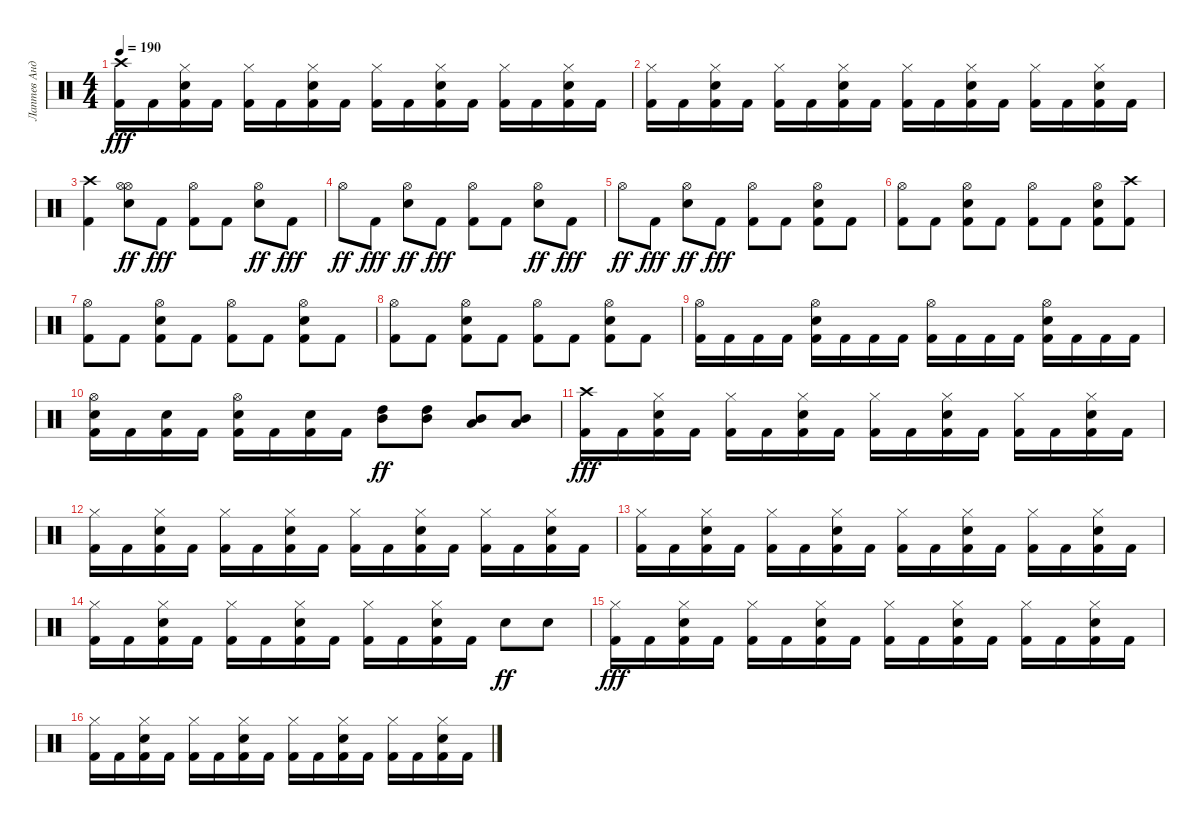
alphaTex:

\track ("Лаптев Андрей" "Лаптев Анд") {instrument percussion}
\staff {score}
\articulation defaults
\ts (4 4)
\tempo 190
\clef neutral
\ks c
("Crash high (hit)" "Kick (hit) 2").16{dy fff} "Kick (hit) 2".16 ("Electric Snare (hit)" "Hi-Hat (closed)" "Kick (hit) 2").16 "Kick (hit) 2".16 ("Hi-Hat (closed)" "Kick (hit) 2").16 "Kick (hit) 2".16 ("Electric Snare (hit)" "Hi-Hat (closed)" "Kick (hit) 2").16 "Kick (hit) 2".16 ("Hi-Hat (closed)" "Kick (hit) 2").16 "Kick (hit) 2".16 ("Hi-Hat (closed)" "Electric Snare (hit)" "Kick (hit) 2").16 "Kick (hit) 2".16 ("Hi-Hat (closed)" "Kick (hit) 2").16 "Kick (hit) 2".16 ("Hi-Hat (closed)" "Electric Snare (hit)" "Kick (hit) 2").16 "Kick (hit) 2".16 |
("Hi-Hat (closed)" "Kick (hit) 2").16 "Kick (hit) 2".16 ("Electric Snare (hit)" "Hi-Hat (closed)" "Kick (hit) 2").16 "Kick (hit) 2".16 ("Hi-Hat (closed)" "Kick (hit) 2").16 "Kick (hit) 2".16 ("Electric Snare (hit)" "Hi-Hat (closed)" "Kick (hit) 2").16 "Kick (hit) 2".16 ("Hi-Hat (closed)" "Kick (hit) 2").16 "Kick (hit) 2".16 ("Electric Snare (hit)" "Hi-Hat (closed)" "Kick (hit) 2").16 "Kick (hit) 2".16 ("Hi-Hat (closed)" "Kick (hit) 2").16 "Kick (hit) 2".16 ("Electric Snare (hit)" "Hi-Hat (closed)" "Kick (hit) 2").16 "Kick (hit) 2".16 |
("Crash high (hit)" "Kick (hit) 2").4 ("Hi-Hat (open)" "Hi-Hat (open)" "Electric Snare (hit)").8{dy ff} "Kick (hit) 2".8{dy fff} ("Hi-Hat (open)" "Kick (hit) 2").8 "Kick (hit) 2".8 ("Electric Snare (hit)" "Hi-Hat (open)").8{dy ff} "Kick (hit) 2".8{dy fff} |
"Hi-Hat (open)".8{dy ff} "Kick (hit) 2".8{dy fff} ("Electric Snare (hit)" "Hi-Hat (open)").8{dy ff} "Kick (hit) 2".8{dy fff} ("Hi-Hat (open)" "Kick (hit) 2").8 "Kick (hit) 2".8 ("Electric Snare (hit)" "Hi-Hat (open)").8{dy ff} "Kick (hit) 2".8{dy fff} |
"Hi-Hat (open)".8{dy ff} "Kick (hit) 2".8{dy fff} ("Electric Snare (hit)" "Hi-Hat (open)").8{dy ff} "Kick (hit) 2".8{dy fff} ("Hi-Hat (open)" "Kick (hit) 2").8 "Kick (hit) 2".8 ("Electric Snare (hit)" "Hi-Hat (open)" "Kick (hit) 2").8 "Kick (hit) 2".8 |
("Hi-Hat (open)" "Kick (hit) 2").8 "Kick (hit) 2".8 ("Electric Snare (hit)" "Hi-Hat (open)" "Kick (hit) 2").8 "Kick (hit) 2".8 ("Hi-Hat (open)" "Kick (hit) 2").8 "Kick (hit) 2".8 ("Hi-Hat (open)" "Electric Snare (hit)" "Kick (hit) 2").8 ("Crash high (hit)" "Kick (hit) 2").8 |
("Hi-Hat (open)" "Kick (hit) 2").8 "Kick (hit) 2".8 ("Electric Snare (hit)" "Hi-Hat (open)" "Kick (hit) 2").8 "Kick (hit) 2".8 ("Hi-Hat (open)" "Kick (hit) 2").8 "Kick (hit) 2".8 ("Hi-Hat (open)" "Electric Snare (hit)" "Kick (hit) 2").8 "Kick (hit) 2".8 |
("Hi-Hat (open)" "Kick (hit) 2").8 "Kick (hit) 2".8 ("Hi-Hat (open)" "Electric Snare (hit)" "Kick (hit) 2").8 "Kick (hit) 2".8 ("Hi-Hat (open)" "Kick (hit) 2").8 "Kick (hit) 2".8 ("Electric Snare (hit)" "Hi-Hat (open)" "Kick (hit) 2").8 "Kick (hit) 2".8 |
("Hi-Hat (open)" "Kick (hit) 2").16 "Kick (hit) 2".16 "Kick (hit) 2".16 "Kick (hit) 2".16 ("Electric Snare (hit)" "Hi-Hat (open)" "Kick (hit) 2").16 "Kick (hit) 2".16 "Kick (hit) 2".16 "Kick (hit) 2".16 ("Hi-Hat (open)" "Kick (hit) 2").16 "Kick (hit) 2".16 "Kick (hit) 2".16 "Kick (hit) 2".16 ("Hi-Hat (open)" "Electric Snare (hit)" "Kick (hit) 2").16 "Kick (hit) 2".16 "Kick (hit) 2".16 "Kick (hit) 2".16 |
("Hi-Hat (open)" "Electric Snare (hit)" "Kick (hit) 2").16 "Kick (hit) 2".16 ("Electric Snare (hit)" "Kick (hit) 2").16 "Kick (hit) 2".16 ("Electric Snare (hit)" "Hi-Hat (open)" "Kick (hit) 2").16 "Kick (hit) 2".16 ("Electric Snare (hit)" "Kick (hit) 2").16 "Kick (hit) 2".16 ("Mid Tom (hit)" "High Tom (hit)").8{dy ff} ("Mid Tom (hit)" "High Tom (hit)").8 ("Low Tom (hit)" "Mid Tom (hit)").8 ("Low Tom (hit)" "Mid Tom (hit)").8 |
("Crash high (hit)" "Kick (hit) 2").16{dy fff} "Kick (hit) 2".16 ("Electric Snare (hit)" "Hi-Hat (closed)" "Kick (hit) 2").16 "Kick (hit) 2".16 ("Hi-Hat (closed)" "Kick (hit) 2").16 "Kick (hit) 2".16 ("Electric Snare (hit)" "Hi-Hat (closed)" "Kick (hit) 2").16 "Kick (hit) 2".16 ("Hi-Hat (closed)" "Kick (hit) 2").16 "Kick (hit) 2".16 ("Hi-Hat (closed)" "Electric Snare (hit)" "Kick (hit) 2").16 "Kick (hit) 2".16 ("Hi-Hat (closed)" "Kick (hit) 2").16 "Kick (hit) 2".16 ("Electric Snare (hit)" "Hi-Hat (closed)" "Kick (hit) 2").16 "Kick (hit) 2".16 |
("Hi-Hat (closed)" "Kick (hit) 2").16 "Kick (hit) 2".16 ("Hi-Hat (closed)" "Electric Snare (hit)" "Kick (hit) 2").16 "Kick (hit) 2".16 ("Hi-Hat (closed)" "Kick (hit) 2").16 "Kick (hit) 2".16 ("Hi-Hat (closed)" "Electric Snare (hit)" "Kick (hit) 2").16 "Kick (hit) 2".16 ("Hi-Hat (closed)" "Kick (hit) 2").16 "Kick (hit) 2".16 ("Hi-Hat (closed)" "Electric Snare (hit)" "Kick (hit) 2").16 "Kick (hit) 2".16 ("Hi-Hat (closed)" "Kick (hit) 2").16 "Kick (hit) 2".16 ("Hi-Hat (closed)" "Electric Snare (hit)" "Kick (hit) 2").16 "Kick (hit) 2".16 |
("Hi-Hat (closed)" "Kick (hit) 2").16 "Kick (hit) 2".16 ("Hi-Hat (closed)" "Electric Snare (hit)" "Kick (hit) 2").16 "Kick (hit) 2".16 ("Hi-Hat (closed)" "Kick (hit) 2").16 "Kick (hit) 2".16 ("Hi-Hat (closed)" "Electric Snare (hit)" "Kick (hit) 2").16 "Kick (hit) 2".16 ("Hi-Hat (closed)" "Kick (hit) 2").16 "Kick (hit) 2".16 ("Hi-Hat (closed)" "Electric Snare (hit)" "Kick (hit) 2").16 "Kick (hit) 2".16 ("Hi-Hat (closed)" "Kick (hit) 2").16 "Kick (hit) 2".16 ("Hi-Hat (closed)" "Electric Snare (hit)" "Kick (hit) 2").16 "Kick (hit) 2".16 |
("Hi-Hat (closed)" "Kick (hit) 2").16 "Kick (hit) 2".16 ("Hi-Hat (closed)" "Electric Snare (hit)" "Kick (hit) 2").16 "Kick (hit) 2".16 ("Hi-Hat (closed)" "Kick (hit) 2").16 "Kick (hit) 2".16 ("Hi-Hat (closed)" "Electric Snare (hit)" "Kick (hit) 2").16 "Kick (hit) 2".16 ("Hi-Hat (closed)" "Kick (hit) 2").16 "Kick (hit) 2".16 ("Hi-Hat (closed)" "Electric Snare (hit)" "Kick (hit) 2").16 "Kick (hit) 2".16 "Electric Snare (hit)".8{dy ff} "Electric Snare (hit)".8 |
("Hi-Hat (closed)" "Kick (hit) 2").16{dy fff} "Kick (hit) 2".16 ("Hi-Hat (closed)" "Electric Snare (hit)" "Kick (hit) 2").16 "Kick (hit) 2".16 ("Hi-Hat (closed)" "Kick (hit) 2").16 "Kick (hit) 2".16 ("Hi-Hat (closed)" "Electric Snare (hit)" "Kick (hit) 2").16 "Kick (hit) 2".16 ("Hi-Hat (closed)" "Kick (hit) 2").16 "Kick (hit) 2".16 ("Hi-Hat (closed)" "Electric Snare (hit)" "Kick (hit) 2").16 "Kick (hit) 2".16 ("Hi-Hat (closed)" "Kick (hit) 2").16 "Kick (hit) 2".16 ("Hi-Hat (closed)" "Electric Snare (hit)" "Kick (hit) 2").16 "Kick (hit) 2".16 |
("Hi-Hat (closed)" "Kick (hit) 2").16 "Kick (hit) 2".16 ("Hi-Hat (closed)" "Electric Snare (hit)" "Kick (hit) 2").16 "Kick (hit) 2".16 ("Hi-Hat (closed)" "Kick (hit) 2").16 "Kick (hit) 2".16 ("Hi-Hat (closed)" "Electric Snare (hit)" "Kick (hit) 2").16 "Kick (hit) 2".16 ("Hi-Hat (closed)" "Kick (hit) 2").16 "Kick (hit) 2".16 ("Hi-Hat (closed)" "Electric Snare (hit)" "Kick (hit) 2").16 "Kick (hit) 2".16 ("Hi-Hat (closed)" "Kick (hit) 2").16 "Kick (hit) 2".16 ("Hi-Hat (closed)" "Electric Snare (hit)" "Kick (hit) 2").16 "Kick (hit) 2".16
